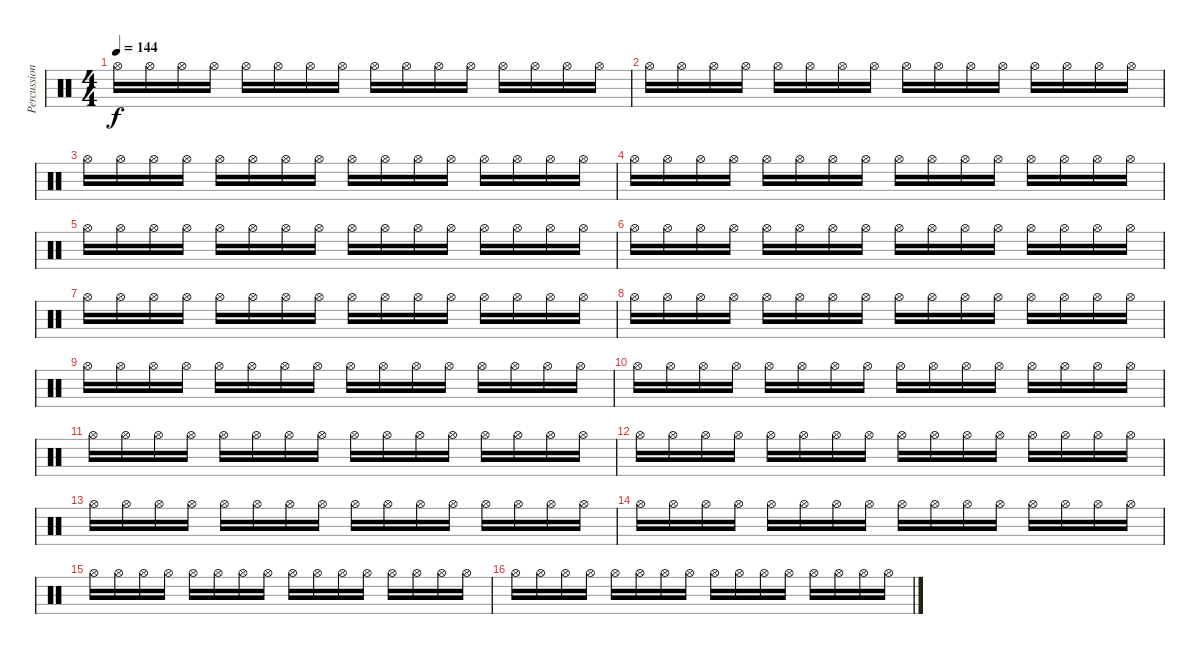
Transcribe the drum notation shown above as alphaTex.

\track ("Percussion" "Percussion") {instrument percussion}
\staff {score}
\articulation defaults
\ts (4 4)
\tempo 144
\clef neutral
\ks c "Hi-Hat (open)".16{dy f} "Hi-Hat (open)".16 "Hi-Hat (open)".16 "Hi-Hat (open)".16 "Hi-Hat (open)".16 "Hi-Hat (open)".16 "Hi-Hat (open)".16 "Hi-Hat (open)".16 "Hi-Hat (open)".16 "Hi-Hat (open)".16 "Hi-Hat (open)".16 "Hi-Hat (open)".16 "Hi-Hat (open)".16 "Hi-Hat (open)".16 "Hi-Hat (open)".16 "Hi-Hat (open)".16
|
"Hi-Hat (open)".16 "Hi-Hat (open)".16 "Hi-Hat (open)".16 "Hi-Hat (open)".16 "Hi-Hat (open)".16 "Hi-Hat (open)".16 "Hi-Hat (open)".16 "Hi-Hat (open)".16 "Hi-Hat (open)".16 "Hi-Hat (open)".16 "Hi-Hat (open)".16 "Hi-Hat (open)".16 "Hi-Hat (open)".16 "Hi-Hat (open)".16 "Hi-Hat (open)".16 "Hi-Hat (open)".16 |
"Hi-Hat (open)".16 "Hi-Hat (open)".16 "Hi-Hat (open)".16 "Hi-Hat (open)".16 "Hi-Hat (open)".16 "Hi-Hat (open)".16 "Hi-Hat (open)".16 "Hi-Hat (open)".16 "Hi-Hat (open)".16 "Hi-Hat (open)".16 "Hi-Hat (open)".16 "Hi-Hat (open)".16 "Hi-Hat (open)".16 "Hi-Hat (open)".16 "Hi-Hat (open)".16 "Hi-Hat (open)".16 |
"Hi-Hat (open)".16 "Hi-Hat (open)".16 "Hi-Hat (open)".16 "Hi-Hat (open)".16 "Hi-Hat (open)".16 "Hi-Hat (open)".16 "Hi-Hat (open)".16 "Hi-Hat (open)".16 "Hi-Hat (open)".16 "Hi-Hat (open)".16 "Hi-Hat (open)".16 "Hi-Hat (open)".16 "Hi-Hat (open)".16 "Hi-Hat (open)".16 "Hi-Hat (open)".16 "Hi-Hat (open)".16 |
"Hi-Hat (open)".16 "Hi-Hat (open)".16 "Hi-Hat (open)".16 "Hi-Hat (open)".16 "Hi-Hat (open)".16 "Hi-Hat (open)".16 "Hi-Hat (open)".16 "Hi-Hat (open)".16 "Hi-Hat (open)".16 "Hi-Hat (open)".16 "Hi-Hat (open)".16 "Hi-Hat (open)".16 "Hi-Hat (open)".16 "Hi-Hat (open)".16 "Hi-Hat (open)".16 "Hi-Hat (open)".16 |
"Hi-Hat (open)".16 "Hi-Hat (open)".16 "Hi-Hat (open)".16 "Hi-Hat (open)".16 "Hi-Hat (open)".16 "Hi-Hat (open)".16 "Hi-Hat (open)".16 "Hi-Hat (open)".16 "Hi-Hat (open)".16 "Hi-Hat (open)".16 "Hi-Hat (open)".16 "Hi-Hat (open)".16 "Hi-Hat (open)".16 "Hi-Hat (open)".16 "Hi-Hat (open)".16 "Hi-Hat (open)".16 |
"Hi-Hat (open)".16 "Hi-Hat (open)".16 "Hi-Hat (open)".16 "Hi-Hat (open)".16 "Hi-Hat (open)".16 "Hi-Hat (open)".16 "Hi-Hat (open)".16 "Hi-Hat (open)".16 "Hi-Hat (open)".16 "Hi-Hat (open)".16 "Hi-Hat (open)".16 "Hi-Hat (open)".16 "Hi-Hat (open)".16 "Hi-Hat (open)".16 "Hi-Hat (open)".16 "Hi-Hat (open)".16 |
"Hi-Hat (open)".16 "Hi-Hat (open)".16 "Hi-Hat (open)".16 "Hi-Hat (open)".16 "Hi-Hat (open)".16 "Hi-Hat (open)".16 "Hi-Hat (open)".16 "Hi-Hat (open)".16 "Hi-Hat (open)".16 "Hi-Hat (open)".16 "Hi-Hat (open)".16 "Hi-Hat (open)".16 "Hi-Hat (open)".16 "Hi-Hat (open)".16 "Hi-Hat (open)".16 "Hi-Hat (open)".16 |
"Hi-Hat (open)".16 "Hi-Hat (open)".16 "Hi-Hat (open)".16 "Hi-Hat (open)".16 "Hi-Hat (open)".16 "Hi-Hat (open)".16 "Hi-Hat (open)".16 "Hi-Hat (open)".16 "Hi-Hat (open)".16 "Hi-Hat (open)".16 "Hi-Hat (open)".16 "Hi-Hat (open)".16 "Hi-Hat (open)".16 "Hi-Hat (open)".16 "Hi-Hat (open)".16 "Hi-Hat (open)".16 |
"Hi-Hat (open)".16 "Hi-Hat (open)".16 "Hi-Hat (open)".16 "Hi-Hat (open)".16 "Hi-Hat (open)".16 "Hi-Hat (open)".16 "Hi-Hat (open)".16 "Hi-Hat (open)".16 "Hi-Hat (open)".16 "Hi-Hat (open)".16 "Hi-Hat (open)".16 "Hi-Hat (open)".16 "Hi-Hat (open)".16 "Hi-Hat (open)".16 "Hi-Hat (open)".16 "Hi-Hat (open)".16 |
"Hi-Hat (open)".16 "Hi-Hat (open)".16 "Hi-Hat (open)".16 "Hi-Hat (open)".16 "Hi-Hat (open)".16 "Hi-Hat (open)".16 "Hi-Hat (open)".16 "Hi-Hat (open)".16 "Hi-Hat (open)".16 "Hi-Hat (open)".16 "Hi-Hat (open)".16 "Hi-Hat (open)".16 "Hi-Hat (open)".16 "Hi-Hat (open)".16 "Hi-Hat (open)".16 "Hi-Hat (open)".16 |
"Hi-Hat (open)".16 "Hi-Hat (open)".16 "Hi-Hat (open)".16 "Hi-Hat (open)".16 "Hi-Hat (open)".16 "Hi-Hat (open)".16 "Hi-Hat (open)".16 "Hi-Hat (open)".16 "Hi-Hat (open)".16 "Hi-Hat (open)".16 "Hi-Hat (open)".16 "Hi-Hat (open)".16 "Hi-Hat (open)".16 "Hi-Hat (open)".16 "Hi-Hat (open)".16 "Hi-Hat (open)".16 |
"Hi-Hat (open)".16 "Hi-Hat (open)".16 "Hi-Hat (open)".16 "Hi-Hat (open)".16 "Hi-Hat (open)".16 "Hi-Hat (open)".16 "Hi-Hat (open)".16 "Hi-Hat (open)".16 "Hi-Hat (open)".16 "Hi-Hat (open)".16 "Hi-Hat (open)".16 "Hi-Hat (open)".16 "Hi-Hat (open)".16 "Hi-Hat (open)".16 "Hi-Hat (open)".16 "Hi-Hat (open)".16 |
"Hi-Hat (open)".16 "Hi-Hat (open)".16 "Hi-Hat (open)".16 "Hi-Hat (open)".16 "Hi-Hat (open)".16 "Hi-Hat (open)".16 "Hi-Hat (open)".16 "Hi-Hat (open)".16 "Hi-Hat (open)".16 "Hi-Hat (open)".16 "Hi-Hat (open)".16 "Hi-Hat (open)".16 "Hi-Hat (open)".16 "Hi-Hat (open)".16 "Hi-Hat (open)".16 "Hi-Hat (open)".16 |
"Hi-Hat (open)".16 "Hi-Hat (open)".16 "Hi-Hat (open)".16 "Hi-Hat (open)".16 "Hi-Hat (open)".16 "Hi-Hat (open)".16 "Hi-Hat (open)".16 "Hi-Hat (open)".16 "Hi-Hat (open)".16 "Hi-Hat (open)".16 "Hi-Hat (open)".16 "Hi-Hat (open)".16 "Hi-Hat (open)".16 "Hi-Hat (open)".16 "Hi-Hat (open)".16 "Hi-Hat (open)".16 |
"Hi-Hat (open)".16 "Hi-Hat (open)".16 "Hi-Hat (open)".16 "Hi-Hat (open)".16 "Hi-Hat (open)".16 "Hi-Hat (open)".16 "Hi-Hat (open)".16 "Hi-Hat (open)".16 "Hi-Hat (open)".16 "Hi-Hat (open)".16 "Hi-Hat (open)".16 "Hi-Hat (open)".16 "Hi-Hat (open)".16 "Hi-Hat (open)".16 "Hi-Hat (open)".16 "Hi-Hat (open)".16
